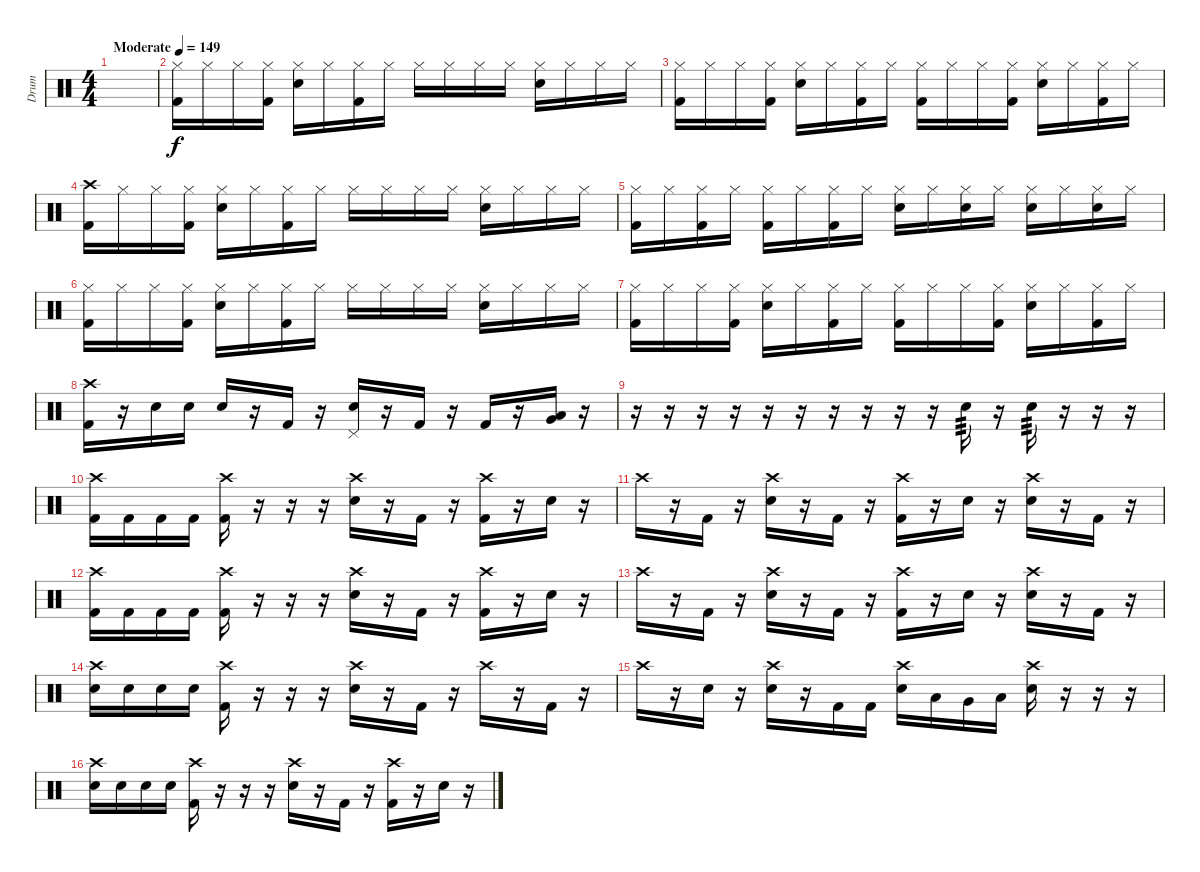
\track ("Drum" "Drum") {instrument percussion}
\staff {score}
\articulation defaults
\ts (4 4)
\tempo (149 "Moderate")
\clef neutral
\ks c
|
("Hi-Hat (closed)" "Kick (hit) 2").16 "Hi-Hat (closed)".16 "Hi-Hat (closed)".16 ("Hi-Hat (closed)" "Kick (hit) 2").16 ("Hi-Hat (closed)" "Electric Snare (hit)").16 "Hi-Hat (closed)".16 ("Hi-Hat (closed)" "Kick (hit) 2").16 "Hi-Hat (closed)".16 "Hi-Hat (closed)".16 "Hi-Hat (closed)".16 "Hi-Hat (closed)".16 "Hi-Hat (closed)".16 ("Hi-Hat (closed)" "Electric Snare (hit)").16 "Hi-Hat (closed)".16 "Hi-Hat (closed)".16 "Hi-Hat (closed)".16 |
("Hi-Hat (closed)" "Kick (hit) 2").16 "Hi-Hat (closed)".16 "Hi-Hat (closed)".16 ("Hi-Hat (closed)" "Kick (hit) 2").16 ("Hi-Hat (closed)" "Electric Snare (hit)").16 "Hi-Hat (closed)".16 ("Hi-Hat (closed)" "Kick (hit) 2").16 "Hi-Hat (closed)".16 ("Hi-Hat (closed)" "Kick (hit) 2").16 "Hi-Hat (closed)".16 "Hi-Hat (closed)".16 ("Hi-Hat (closed)" "Kick (hit) 2").16 ("Hi-Hat (closed)" "Electric Snare (hit)").16 "Hi-Hat (closed)".16 ("Hi-Hat (closed)" "Kick (hit) 2").16 "Hi-Hat (closed)".16 |
("Crash high (hit)" "Kick (hit) 2").16 "Hi-Hat (closed)".16 "Hi-Hat (closed)".16 ("Hi-Hat (closed)" "Kick (hit) 2").16 ("Hi-Hat (closed)" "Electric Snare (hit)").16 "Hi-Hat (closed)".16 ("Hi-Hat (closed)" "Kick (hit) 2").16 "Hi-Hat (closed)".16 "Hi-Hat (closed)".16 "Hi-Hat (closed)".16 "Hi-Hat (closed)".16 "Hi-Hat (closed)".16 ("Hi-Hat (closed)" "Electric Snare (hit)").16 "Hi-Hat (closed)".16 "Hi-Hat (closed)".16 "Hi-Hat (closed)".16 |
("Hi-Hat (closed)" "Kick (hit) 2").16 "Hi-Hat (closed)".16 ("Hi-Hat (closed)" "Kick (hit) 2").16 "Hi-Hat (closed)".16 ("Hi-Hat (closed)" "Kick (hit) 2").16 "Hi-Hat (closed)".16 ("Hi-Hat (closed)" "Kick (hit) 2").16 "Hi-Hat (closed)".16 ("Hi-Hat (closed)" "Electric Snare (hit)").16 "Hi-Hat (closed)".16 ("Hi-Hat (closed)" "Electric Snare (hit)").16 "Hi-Hat (closed)".16 ("Hi-Hat (closed)" "Electric Snare (hit)").16 "Hi-Hat (closed)".16 ("Hi-Hat (closed)" "Electric Snare (hit)").16 "Hi-Hat (closed)".16 |
("Hi-Hat (closed)" "Kick (hit) 2").16 "Hi-Hat (closed)".16 "Hi-Hat (closed)".16 ("Hi-Hat (closed)" "Kick (hit) 2").16 ("Hi-Hat (closed)" "Electric Snare (hit)").16 "Hi-Hat (closed)".16 ("Hi-Hat (closed)" "Kick (hit) 2").16 "Hi-Hat (closed)".16 "Hi-Hat (closed)".16 "Hi-Hat (closed)".16 "Hi-Hat (closed)".16 "Hi-Hat (closed)".16 ("Hi-Hat (closed)" "Electric Snare (hit)").16 "Hi-Hat (closed)".16 "Hi-Hat (closed)".16 "Hi-Hat (closed)".16 |
("Hi-Hat (closed)" "Kick (hit) 2").16 "Hi-Hat (closed)".16 "Hi-Hat (closed)".16 ("Hi-Hat (closed)" "Kick (hit) 2").16 ("Hi-Hat (closed)" "Electric Snare (hit)").16 "Hi-Hat (closed)".16 ("Hi-Hat (closed)" "Kick (hit) 2").16 "Hi-Hat (closed)".16 ("Hi-Hat (closed)" "Kick (hit) 2").16 "Hi-Hat (closed)".16 "Hi-Hat (closed)".16 ("Hi-Hat (closed)" "Kick (hit) 2").16 ("Hi-Hat (closed)" "Electric Snare (hit)").16 "Hi-Hat (closed)".16 ("Hi-Hat (closed)" "Kick (hit) 2").16 "Hi-Hat (closed)".16 |
("Crash high (hit)" "Kick (hit) 2").16 r.16 "Electric Snare (hit)".16 "Electric Snare (hit)".16 "Electric Snare (hit)".16 r.16 "Kick (hit) 2".16 r.16 ("Electric Snare (hit)" "Pedal Hi-Hat (hit)").16 r.16 "Kick (hit) 2".16 r.16 "Kick (hit) 2".16 r.16 ("Very Low Tom (hit)" "Low Floor Tom (hit)").16 r.16 |
r.16 r.16 r.16 r.16 r.16 r.16 r.16 r.16 r.16 r.16 "Electric Snare (hit)".16{tp 3} r.16 "Electric Snare (hit)".16{tp 3} r.16 r.16 r.16 |
("Crash high (hit)" "Kick (hit) 2").16 "Kick (hit) 2".16 "Kick (hit) 2".16 "Kick (hit) 2".16 ("Crash high (hit)" "Kick (hit) 2").16 r.16 r.16 r.16 ("Crash high (hit)" "Electric Snare (hit)").16 r.16 "Kick (hit) 2".16 r.16 ("Crash high (hit)" "Kick (hit) 2").16 r.16 "Electric Snare (hit)".16 r.16 |
"Crash high (hit)".16 r.16 "Kick (hit) 2".16 r.16 ("Crash high (hit)" "Electric Snare (hit)").16 r.16 "Kick (hit) 2".16 r.16 ("Crash high (hit)" "Kick (hit) 2").16 r.16 "Electric Snare (hit)".16 r.16 ("Crash high (hit)" "Electric Snare (hit)").16 r.16 "Kick (hit) 2".16 r.16 |
("Crash high (hit)" "Kick (hit) 2").16 "Kick (hit) 2".16 "Kick (hit) 2".16 "Kick (hit) 2".16 ("Crash high (hit)" "Kick (hit) 2").16 r.16 r.16 r.16 ("Crash high (hit)" "Electric Snare (hit)").16 r.16 "Kick (hit) 2".16 r.16 ("Crash high (hit)" "Kick (hit) 2").16 r.16 "Electric Snare (hit)".16 r.16 |
"Crash high (hit)".16 r.16 "Kick (hit) 2".16 r.16 ("Crash high (hit)" "Electric Snare (hit)").16 r.16 "Kick (hit) 2".16 r.16 ("Crash high (hit)" "Kick (hit) 2").16 r.16 "Electric Snare (hit)".16 r.16 ("Crash high (hit)" "Electric Snare (hit)").16 r.16 "Kick (hit) 2".16 r.16 |
("Crash high (hit)" "Electric Snare (hit)").16 "Electric Snare (hit)".16 "Electric Snare (hit)".16 "Electric Snare (hit)".16 ("Crash high (hit)" "Kick (hit) 2").16 r.16 r.16 r.16 ("Crash high (hit)" "Electric Snare (hit)").16 r.16 "Kick (hit) 2".16 r.16 "Crash high (hit)".16 r.16 "Kick (hit) 2".16 r.16 |
"Crash high (hit)".16 r.16 "Electric Snare (hit)".16 r.16 ("Crash high (hit)" "Electric Snare (hit)").16 r.16 "Kick (hit) 2".16 "Kick (hit) 2".16 ("Crash high (hit)" "Electric Snare (hit)").16 "Low Tom (hit)".16 "Very Low Tom (hit)".16 "Low Floor Tom (hit)".16 ("Crash high (hit)" "Electric Snare (hit)").16 r.16 r.16 r.16 |
("Crash high (hit)" "Electric Snare (hit)").16 "Electric Snare (hit)".16 "Electric Snare (hit)".16 "Electric Snare (hit)".16 ("Crash high (hit)" "Kick (hit) 2").16 r.16 r.16 r.16 ("Crash high (hit)" "Electric Snare (hit)").16 r.16 "Kick (hit) 2".16 r.16 ("Crash high (hit)" "Kick (hit) 2").16 r.16 "Electric Snare (hit)".16 r.16
